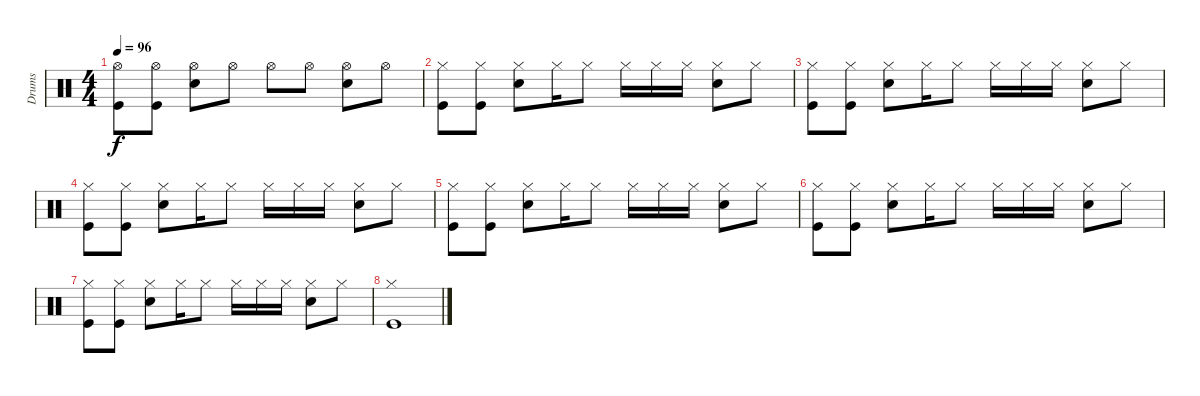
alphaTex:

\track ("Drums" "Drums") {instrument percussion}
\staff {score}
\articulation defaults
\ts (4 4)
\tempo 96
\clef neutral
\ks c
("Hi-Hat (open)" "Kick (hit)").8{dy f} ("Hi-Hat (open)" "Kick (hit)").8 ("Hi-Hat (open)" "Electric Snare (hit)").8 "Hi-Hat (open)".8 "Hi-Hat (open)".8 "Hi-Hat (open)".8 ("Hi-Hat (open)" "Electric Snare (hit)").8 "Hi-Hat (open)".8 |
("Kick (hit)" "Hi-Hat (closed)").8 ("Kick (hit)" "Hi-Hat (closed)").8 ("Electric Snare (hit)" "Hi-Hat (closed)").8 "Hi-Hat (closed)".16 "Hi-Hat (closed)".8 "Hi-Hat (closed)".16 "Hi-Hat (closed)".16 "Hi-Hat (closed)".16 ("Electric Snare (hit)" "Hi-Hat (closed)").8 "Hi-Hat (closed)".8 |
("Kick (hit)" "Hi-Hat (closed)").8 ("Kick (hit)" "Hi-Hat (closed)").8 ("Electric Snare (hit)" "Hi-Hat (closed)").8 "Hi-Hat (closed)".16 "Hi-Hat (closed)".8 "Hi-Hat (closed)".16 "Hi-Hat (closed)".16 "Hi-Hat (closed)".16 ("Electric Snare (hit)" "Hi-Hat (closed)").8 "Hi-Hat (closed)".8 |
("Kick (hit)" "Hi-Hat (closed)").8 ("Kick (hit)" "Hi-Hat (closed)").8 ("Electric Snare (hit)" "Hi-Hat (closed)").8 "Hi-Hat (closed)".16 "Hi-Hat (closed)".8 "Hi-Hat (closed)".16 "Hi-Hat (closed)".16 "Hi-Hat (closed)".16 ("Electric Snare (hit)" "Hi-Hat (closed)").8 "Hi-Hat (closed)".8 |
("Kick (hit)" "Hi-Hat (closed)").8 ("Kick (hit)" "Hi-Hat (closed)").8 ("Electric Snare (hit)" "Hi-Hat (closed)").8 "Hi-Hat (closed)".16 "Hi-Hat (closed)".8 "Hi-Hat (closed)".16 "Hi-Hat (closed)".16 "Hi-Hat (closed)".16 ("Electric Snare (hit)" "Hi-Hat (closed)").8 "Hi-Hat (closed)".8 |
("Kick (hit)" "Hi-Hat (closed)").8 ("Kick (hit)" "Hi-Hat (closed)").8 ("Electric Snare (hit)" "Hi-Hat (closed)").8 "Hi-Hat (closed)".16 "Hi-Hat (closed)".8 "Hi-Hat (closed)".16 "Hi-Hat (closed)".16 "Hi-Hat (closed)".16 ("Electric Snare (hit)" "Hi-Hat (closed)").8 "Hi-Hat (closed)".8 |
("Kick (hit)" "Hi-Hat (closed)").8 ("Kick (hit)" "Hi-Hat (closed)").8 ("Electric Snare (hit)" "Hi-Hat (closed)").8 "Hi-Hat (closed)".16 "Hi-Hat (closed)".8 "Hi-Hat (closed)".16 "Hi-Hat (closed)".16 "Hi-Hat (closed)".16 ("Electric Snare (hit)" "Hi-Hat (closed)").8 "Hi-Hat (closed)".8 |
("Kick (hit)" "Hi-Hat (closed)").1
